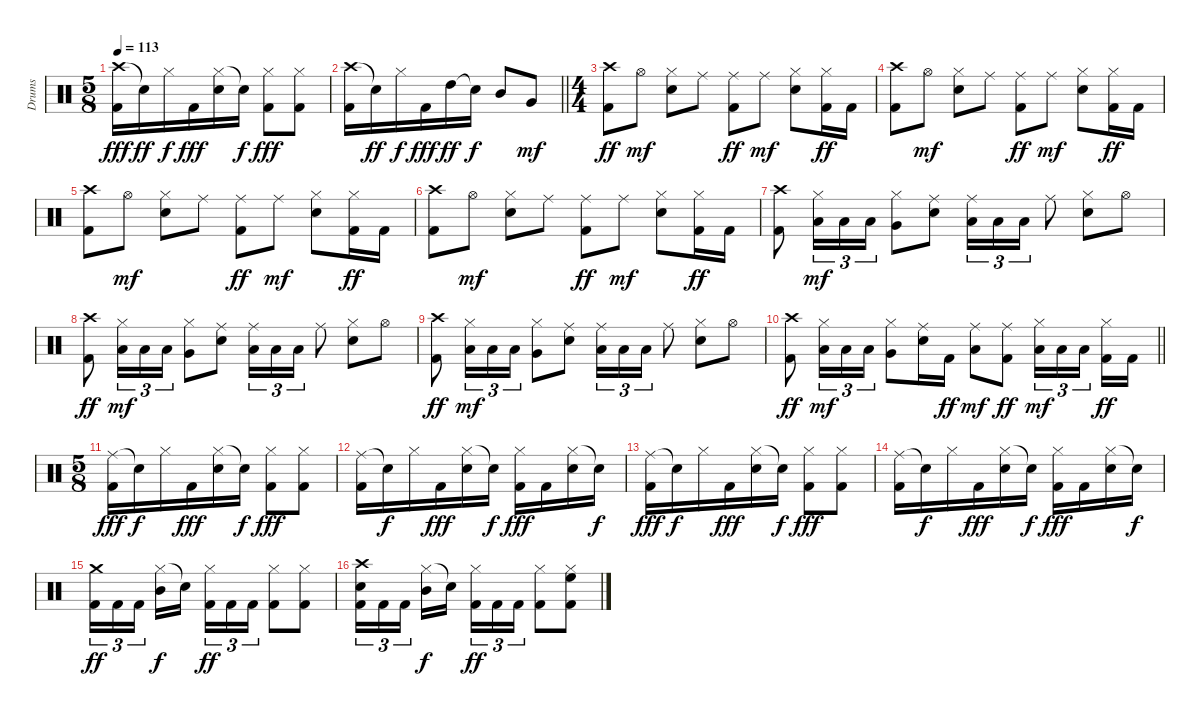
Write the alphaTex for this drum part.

\track ("Drums" "Drums") {instrument percussion}
\staff {score}
\articulation defaults
\ts (5 8)
\tempo 113
\clef neutral
\ks c
("Crash high (hit)" "Kick (hit) 2").16{dy fff} "Snare (hit)"{t}.16{dy ff} "Hi-Hat (closed)".16{dy f} "Kick (hit) 2".16{dy fff} ("Hi-Hat (closed)" "Snare (hit) 2").16 "Snare (hit)"{t}.16{dy f} ("Hi-Hat (closed)" "Kick (hit) 2").8{dy fff} ("Hi-Hat (closed)" "Kick (hit) 2").8 |
\barLineRight lightlight
("Crash high (hit)" "Kick (hit) 2").16 "Snare (hit)"{t}.16{dy ff} "Hi-Hat (closed)".16{dy f} "Kick (hit) 2".16{dy fff} "High Tom (hit)".16{dy ff} "Snare (hit)"{t}.16{dy f} "Mid Tom (hit)".8 "Very Low Tom (hit)".8{dy mf} |
\ts (4 4)
\section ("" "")
("Crash high (hit)" "Kick (hit) 2").8{dy ff} "Hi-Hat (open)".8{dy mf} ("Hi-Hat (closed)" "Snare (hit) 2").8 "Ride (middle)".8 ("Ride (middle)" "Kick (hit) 2").8{dy ff} "Ride (middle)".8{dy mf} ("Hi-Hat (closed)" "Snare (hit) 2").8 ("Hi-Hat (closed)" "Kick (hit) 2").16{dy ff} "Kick (hit) 2".16 |
("Crash high (hit)" "Kick (hit) 2").8 "Hi-Hat (open)".8{dy mf} ("Hi-Hat (closed)" "Snare (hit) 2").8 "Ride (middle)".8 ("Ride (middle)" "Kick (hit) 2").8{dy ff} "Ride (middle)".8{dy mf} ("Hi-Hat (closed)" "Snare (hit) 2").8 ("Hi-Hat (closed)" "Kick (hit) 2").16{dy ff} "Kick (hit) 2".16 |
("Crash high (hit)" "Kick (hit) 2").8 "Hi-Hat (open)".8{dy mf} ("Hi-Hat (closed)" "Snare (hit) 2").8 "Ride (middle)".8 ("Ride (middle)" "Kick (hit) 2").8{dy ff} "Ride (middle)".8{dy mf} ("Hi-Hat (closed)" "Snare (hit) 2").8 ("Hi-Hat (closed)" "Kick (hit) 2").16{dy ff} "Kick (hit) 2".16 |
("Crash high (hit)" "Kick (hit) 2").8 "Hi-Hat (open)".8{dy mf} ("Hi-Hat (closed)" "Snare (hit) 2").8 "Ride (middle)".8 ("Ride (middle)" "Kick (hit) 2").8{dy ff} "Ride (middle)".8{dy mf} ("Hi-Hat (closed)" "Snare (hit) 2").8 ("Hi-Hat (closed)" "Kick (hit) 2").16{dy ff} "Kick (hit) 2".16 |
("Crash high (hit)" "Kick (hit) 2").8 ("Hi-Hat (closed)" "Low Tom (hit)").16{tu (3 2) dy mf} "Low Tom (hit)".16{tu (3 2)} "Low Tom (hit)".16{tu (3 2)} ("Hi-Hat (closed)" "Very Low Tom (hit)").8 ("Ride (middle)" "Snare (hit) 2").8 ("Ride (middle)" "Low Tom (hit)").16{tu (3 2)} "Low Tom (hit)".16{tu (3 2)} "Low Tom (hit)".16{tu (3 2)} "Ride (middle)".8 ("Hi-Hat (closed)" "Snare (hit) 2").8 "Hi-Hat (open)".8 |
("Crash high (hit)" "Kick (hit) 2").8{dy ff} ("Hi-Hat (closed)" "Low Tom (hit)").16{tu (3 2) dy mf} "Low Tom (hit)".16{tu (3 2)} "Low Tom (hit)".16{tu (3 2)} ("Hi-Hat (closed)" "Very Low Tom (hit)").8 ("Ride (middle)" "Snare (hit) 2").8 ("Ride (middle)" "Low Tom (hit)").16{tu (3 2)} "Low Tom (hit)".16{tu (3 2)} "Low Tom (hit)".16{tu (3 2)} "Ride (middle)".8 ("Hi-Hat (closed)" "Snare (hit) 2").8 "Hi-Hat (open)".8 |
("Crash high (hit)" "Kick (hit) 2").8{dy ff} ("Hi-Hat (closed)" "Low Tom (hit)").16{tu (3 2) dy mf} "Low Tom (hit)".16{tu (3 2)} "Low Tom (hit)".16{tu (3 2)} ("Hi-Hat (closed)" "Very Low Tom (hit)").8 ("Ride (middle)" "Snare (hit) 2").8 ("Ride (middle)" "Low Tom (hit)").16{tu (3 2)} "Low Tom (hit)".16{tu (3 2)} "Low Tom (hit)".16{tu (3 2)} "Ride (middle)".8 ("Hi-Hat (closed)" "Snare (hit) 2").8 "Hi-Hat (open)".8 |
\barLineRight lightlight
("Crash high (hit)" "Kick (hit) 2").8{dy ff} ("Hi-Hat (closed)" "Low Tom (hit)").16{tu (3 2) dy mf} "Low Tom (hit)".16{tu (3 2)} "Low Tom (hit)".16{tu (3 2)} ("Hi-Hat (closed)" "Very Low Tom (hit)").8 ("Ride (middle)" "Snare (hit) 2").16 "Kick (hit) 2".16{dy ff} ("Ride (middle)" "Low Tom (hit)").8{dy mf} ("Ride (middle)" "Kick (hit) 2").8{dy ff} ("Hi-Hat (closed)" "Low Tom (hit)").16{tu (3 2) dy mf} "Low Tom (hit)".16{tu (3 2)} "Low Tom (hit)".16{tu (3 2) beam splitsecondary} ("Hi-Hat (closed)" "Kick (hit) 2").16{dy ff} "Kick (hit) 2".16 |
\ts (5 8)
\section ("" "")
("Ride (middle)" "Kick (hit) 2").16{dy fff} "Snare (hit)"{t}.16{dy f} "Hi-Hat (closed)".16 "Kick (hit) 2".16{dy fff} ("Hi-Hat (closed)" "Snare (hit) 2").16 "Snare (hit)"{t}.16{dy f} ("Hi-Hat (closed)" "Kick (hit) 2").8{dy fff} ("Hi-Hat (closed)" "Kick (hit) 2").8 |
("Ride (middle)" "Kick (hit) 2").16 "Snare (hit)"{t}.16{dy f} "Hi-Hat (closed)".16 "Kick (hit) 2".16{dy fff} ("Hi-Hat (closed)" "Snare (hit) 2").16 "Snare (hit)"{t}.16{dy f} ("Hi-Hat (closed)" "Kick (hit) 2").16{dy fff} "Kick (hit) 2".16 ("Hi-Hat (closed)" "Snare (hit) 2").16 "Snare (hit)"{t}.16{dy f} |
("Ride (middle)" "Kick (hit) 2").16{dy fff} "Snare (hit)"{t}.16{dy f} "Hi-Hat (closed)".16 "Kick (hit) 2".16{dy fff} ("Hi-Hat (closed)" "Snare (hit) 2").16 "Snare (hit)"{t}.16{dy f} ("Hi-Hat (closed)" "Kick (hit) 2").8{dy fff} ("Hi-Hat (closed)" "Kick (hit) 2").8 |
("Ride (middle)" "Kick (hit) 2").16 "Snare (hit)"{t}.16{dy f} "Hi-Hat (closed)".16 "Kick (hit) 2".16{dy fff} ("Hi-Hat (closed)" "Snare (hit) 2").16 "Snare (hit)"{t}.16{dy f} ("Hi-Hat (closed)" "Kick (hit) 2").16{dy fff} "Kick (hit) 2".16 ("Hi-Hat (closed)" "Snare (hit) 2").16 "Snare (hit)"{t}.16{dy f} |
("Crash medium (hit)" "Kick (hit) 2").16{tu (3 2) dy ff} "Kick (hit) 2".16{tu (3 2)} "Kick (hit) 2".16{tu (3 2)} ("Hi-Hat (closed)" "Mid Tom (hit)").16{dy f} "Snare (hit)"{t}.16 ("Hi-Hat (closed)" "Kick (hit) 2").16{tu (3 2) dy ff} "Kick (hit) 2".16{tu (3 2)} "Kick (hit) 2".16{tu (3 2)} ("Hi-Hat (closed)" "Kick (hit) 2").8 ("Hi-Hat (closed)" "Kick (hit) 2").8 |
("Crash high (hit)" "Snare (hit) 2" "Kick (hit) 2").16{tu (3 2)} "Kick (hit) 2".16{tu (3 2)} "Kick (hit) 2".16{tu (3 2)} ("Hi-Hat (closed)" "Mid Tom (hit)").16{dy f} "Snare (hit)"{t}.16 ("Hi-Hat (closed)" "Kick (hit) 2").16{tu (3 2) dy ff} "Kick (hit) 2".16{tu (3 2)} "Kick (hit) 2".16{tu (3 2)} ("Hi-Hat (closed)" "Kick (hit) 2").8 ("Hi-Hat (closed)" "High Floor Tom (hit)" "Kick (hit) 2").8
